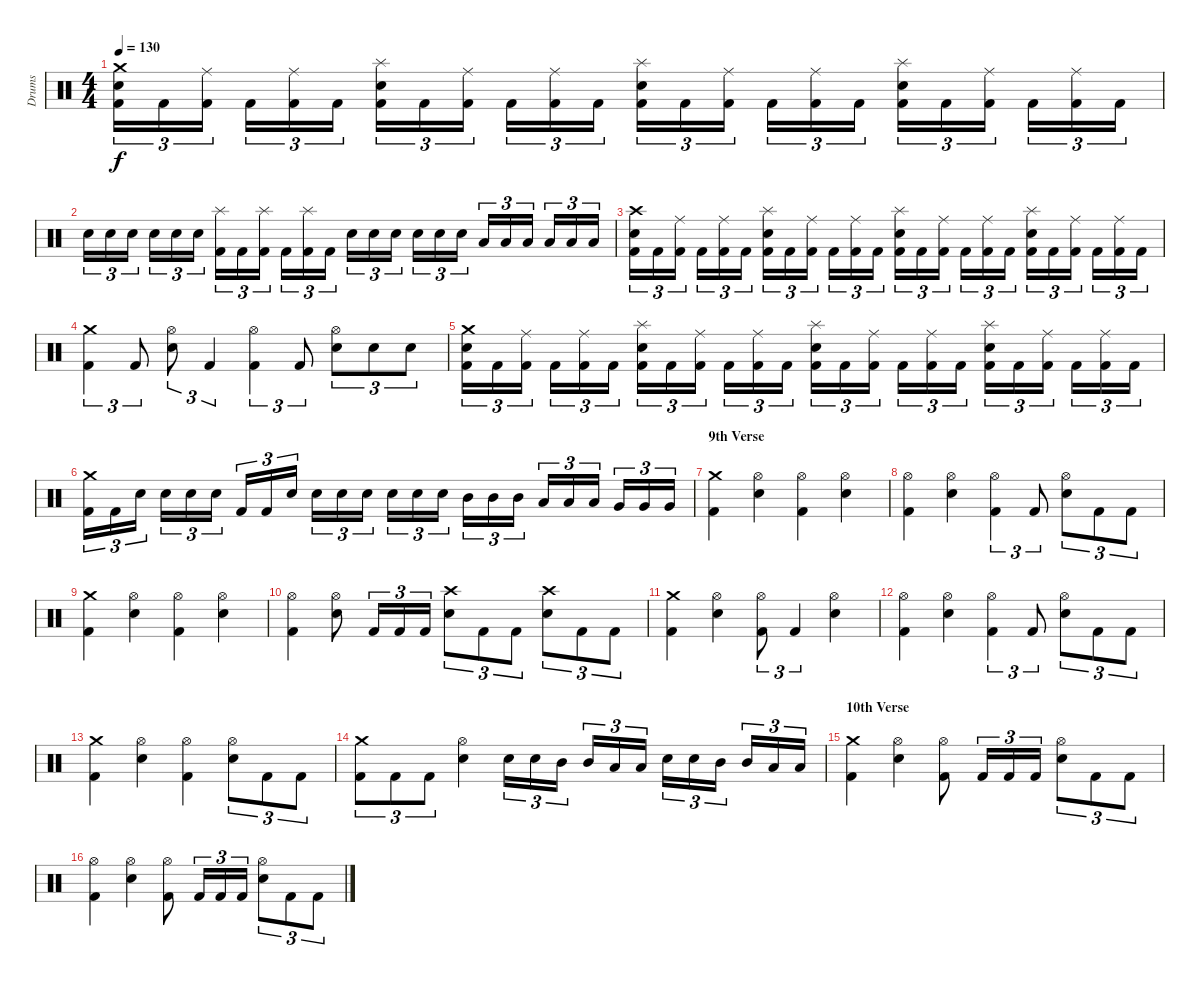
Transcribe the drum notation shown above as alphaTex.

\track ("Drums" "Drums") {instrument percussion}
\staff {score}
\articulation defaults
\ts (4 4)
\tempo 130
\clef neutral
\ks c
("Kick (hit) 2" "Electric Snare (hit)" "Crash medium (hit)").16{tu (3 2) dy f} "Kick (hit) 2".16{tu (3 2)} ("Kick (hit) 2" "Ride (middle)").16{tu (3 2)} "Kick (hit) 2".16{tu (3 2)} ("Kick (hit) 2" "Ride (middle)").16{tu (3 2)} "Kick (hit) 2".16{tu (3 2)} ("Kick (hit) 2" "Electric Snare (hit)" "Splash (hit)").16{tu (3 2)} "Kick (hit) 2".16{tu (3 2)} ("Kick (hit) 2" "Ride (middle)").16{tu (3 2)} "Kick (hit) 2".16{tu (3 2)} ("Kick (hit) 2" "Ride (middle)").16{tu (3 2)} "Kick (hit) 2".16{tu (3 2)} ("Kick (hit) 2" "Electric Snare (hit)" "Splash (hit)").16{tu (3 2)} "Kick (hit) 2".16{tu (3 2)} ("Kick (hit) 2" "Ride (middle)").16{tu (3 2)} "Kick (hit) 2".16{tu (3 2)} ("Kick (hit) 2" "Ride (middle)").16{tu (3 2)} "Kick (hit) 2".16{tu (3 2)} ("Kick (hit) 2" "Electric Snare (hit)" "Splash (hit)").16{tu (3 2)} "Kick (hit) 2".16{tu (3 2)} ("Kick (hit) 2" "Ride (middle)").16{tu (3 2)} "Kick (hit) 2".16{tu (3 2)} ("Kick (hit) 2" "Ride (middle)").16{tu (3 2)} "Kick (hit) 2".16{tu (3 2)} |
"Electric Snare (hit)".16{tu (3 2)} "Electric Snare (hit)".16{tu (3 2)} "Electric Snare (hit)".16{tu (3 2)} "Electric Snare (hit)".16{tu (3 2)} "Electric Snare (hit)".16{tu (3 2)} "Electric Snare (hit)".16{tu (3 2)} ("Kick (hit) 2" "Splash (hit)").16{tu (3 2)} "Kick (hit) 2".16{tu (3 2)} ("Kick (hit) 2" "Splash (hit)").16{tu (3 2)} "Kick (hit) 2".16{tu (3 2)} ("Kick (hit) 2" "Splash (hit)").16{tu (3 2)} "Kick (hit) 2".16{tu (3 2)} "Electric Snare (hit)".16{tu (3 2)} "Electric Snare (hit)".16{tu (3 2)} "Electric Snare (hit)".16{tu (3 2)} "Electric Snare (hit)".16{tu (3 2)} "Electric Snare (hit)".16{tu (3 2)} "Electric Snare (hit)".16{tu (3 2)} "Low Tom (hit)".16{tu (3 2)} "Low Tom (hit)".16{tu (3 2)} "Low Tom (hit)".16{tu (3 2)} "Low Tom (hit)".16{tu (3 2)} "Low Tom (hit)".16{tu (3 2)} "Low Tom (hit)".16{tu (3 2)} |
("Kick (hit) 2" "Electric Snare (hit)" "Crash high (hit)").16{tu (3 2)} "Kick (hit) 2".16{tu (3 2)} ("Kick (hit) 2" "Ride (middle)").16{tu (3 2)} "Kick (hit) 2".16{tu (3 2)} ("Kick (hit) 2" "Ride (middle)").16{tu (3 2)} "Kick (hit) 2".16{tu (3 2)} ("Kick (hit) 2" "Electric Snare (hit)" "Splash (hit)").16{tu (3 2)} "Kick (hit) 2".16{tu (3 2)} ("Kick (hit) 2" "Ride (middle)").16{tu (3 2)} "Kick (hit) 2".16{tu (3 2)} ("Kick (hit) 2" "Ride (middle)").16{tu (3 2)} "Kick (hit) 2".16{tu (3 2)} ("Kick (hit) 2" "Electric Snare (hit)" "Splash (hit)").16{tu (3 2)} "Kick (hit) 2".16{tu (3 2)} ("Kick (hit) 2" "Ride (middle)").16{tu (3 2)} "Kick (hit) 2".16{tu (3 2)} ("Kick (hit) 2" "Ride (middle)").16{tu (3 2)} "Kick (hit) 2".16{tu (3 2)} ("Kick (hit) 2" "Electric Snare (hit)" "Splash (hit)").16{tu (3 2)} "Kick (hit) 2".16{tu (3 2)} ("Kick (hit) 2" "Ride (middle)").16{tu (3 2)} "Kick (hit) 2".16{tu (3 2)} ("Kick (hit) 2" "Ride (middle)").16{tu (3 2)} "Kick (hit) 2".16{tu (3 2)} |
("Kick (hit) 2" "Crash medium (hit)").4{tu (3 2)} "Kick (hit) 2".8{tu (3 2)} ("Electric Snare (hit)" "Hi-Hat (open)").8{tu (3 2)} "Kick (hit) 2".4{tu (3 2)} ("Kick (hit) 2" "Hi-Hat (open)").4{tu (3 2)} "Kick (hit) 2".8{tu (3 2)} ("Electric Snare (hit)" "Hi-Hat (open)").8{tu (3 2)} "Electric Snare (hit)".8{tu (3 2)} "Electric Snare (hit)".8{tu (3 2)} |
("Kick (hit) 2" "Electric Snare (hit)" "Crash medium (hit)").16{tu (3 2)} "Kick (hit) 2".16{tu (3 2)} ("Kick (hit) 2" "Ride (middle)").16{tu (3 2)} "Kick (hit) 2".16{tu (3 2)} ("Kick (hit) 2" "Ride (middle)").16{tu (3 2)} "Kick (hit) 2".16{tu (3 2)} ("Kick (hit) 2" "Electric Snare (hit)" "Splash (hit)").16{tu (3 2)} "Kick (hit) 2".16{tu (3 2)} ("Kick (hit) 2" "Ride (middle)").16{tu (3 2)} "Kick (hit) 2".16{tu (3 2)} ("Kick (hit) 2" "Ride (middle)").16{tu (3 2)} "Kick (hit) 2".16{tu (3 2)} ("Kick (hit) 2" "Electric Snare (hit)" "Splash (hit)").16{tu (3 2)} "Kick (hit) 2".16{tu (3 2)} ("Kick (hit) 2" "Ride (middle)").16{tu (3 2)} "Kick (hit) 2".16{tu (3 2)} ("Kick (hit) 2" "Ride (middle)").16{tu (3 2)} "Kick (hit) 2".16{tu (3 2)} ("Kick (hit) 2" "Electric Snare (hit)" "Splash (hit)").16{tu (3 2)} "Kick (hit) 2".16{tu (3 2)} ("Kick (hit) 2" "Ride (middle)").16{tu (3 2)} "Kick (hit) 2".16{tu (3 2)} ("Kick (hit) 2" "Ride (middle)").16{tu (3 2)} "Kick (hit) 2".16{tu (3 2)} |
("Kick (hit) 2" "Crash medium (hit)").16{tu (3 2)} "Kick (hit) 2".16{tu (3 2)} "Electric Snare (hit)".16{tu (3 2)} "Electric Snare (hit)".16{tu (3 2)} "Electric Snare (hit)".16{tu (3 2)} "Electric Snare (hit)".16{tu (3 2)} "Kick (hit) 2".16{tu (3 2)} "Kick (hit) 2".16{tu (3 2)} "Electric Snare (hit)".16{tu (3 2)} "Electric Snare (hit)".16{tu (3 2)} "Electric Snare (hit)".16{tu (3 2)} "Electric Snare (hit)".16{tu (3 2)} "Electric Snare (hit)".16{tu (3 2)} "Electric Snare (hit)".16{tu (3 2)} "Electric Snare (hit)".16{tu (3 2)} "Mid Tom (hit)".16{tu (3 2)} "Mid Tom (hit)".16{tu (3 2)} "Mid Tom (hit)".16{tu (3 2)} "Low Tom (hit)".16{tu (3 2)} "Low Tom (hit)".16{tu (3 2)} "Low Tom (hit)".16{tu (3 2)} "Very Low Tom (hit)".16{tu (3 2)} "Very Low Tom (hit)".16{tu (3 2)} "Very Low Tom (hit)".16{tu (3 2)} |
\section ("" "9th Verse")
("Kick (hit) 2" "Crash medium (hit)").4 ("Electric Snare (hit)" "Hi-Hat (open)").4 ("Kick (hit) 2" "Hi-Hat (open)").4 ("Electric Snare (hit)" "Hi-Hat (open)").4 |
("Kick (hit) 2" "Hi-Hat (open)").4 ("Electric Snare (hit)" "Hi-Hat (open)").4 ("Kick (hit) 2" "Hi-Hat (open)").4{tu (3 2)} "Kick (hit) 2".8{tu (3 2)} ("Electric Snare (hit)" "Hi-Hat (open)").8{tu (3 2)} "Kick (hit) 2".8{tu (3 2)} "Kick (hit) 2".8{tu (3 2)} |
("Kick (hit) 2" "Crash medium (hit)").4 ("Electric Snare (hit)" "Hi-Hat (open)").4 ("Kick (hit) 2" "Hi-Hat (open)").4 ("Electric Snare (hit)" "Hi-Hat (open)").4 |
("Kick (hit) 2" "Hi-Hat (open)").4 ("Electric Snare (hit)" "Hi-Hat (open)").8 "Kick (hit) 2".16{tu (3 2)} "Kick (hit) 2".16{tu (3 2)} "Kick (hit) 2".16{tu (3 2)} ("Electric Snare (hit)" "Crash high (hit)").8{tu (3 2)} "Kick (hit) 2".8{tu (3 2)} "Kick (hit) 2".8{tu (3 2)} ("Electric Snare (hit)" "Crash high (hit)").8{tu (3 2)} "Kick (hit) 2".8{tu (3 2)} "Kick (hit) 2".8{tu (3 2)} |
("Kick (hit) 2" "Crash medium (hit)").4 ("Electric Snare (hit)" "Hi-Hat (open)").4 ("Kick (hit) 2" "Hi-Hat (open)").8{tu (3 2)} "Kick (hit) 2".4{tu (3 2)} ("Electric Snare (hit)" "Hi-Hat (open)").4 |
("Kick (hit) 2" "Hi-Hat (open)").4 ("Electric Snare (hit)" "Hi-Hat (open)").4 ("Kick (hit) 2" "Hi-Hat (open)").4{tu (3 2)} "Kick (hit) 2".8{tu (3 2)} ("Electric Snare (hit)" "Hi-Hat (open)").8{tu (3 2)} "Kick (hit) 2".8{tu (3 2)} "Kick (hit) 2".8{tu (3 2)} |
("Kick (hit) 2" "Crash medium (hit)").4 ("Electric Snare (hit)" "Hi-Hat (open)").4 ("Kick (hit) 2" "Hi-Hat (open)").4 ("Electric Snare (hit)" "Hi-Hat (open)").8{tu (3 2)} "Kick (hit) 2".8{tu (3 2)} "Kick (hit) 2".8{tu (3 2)} |
("Kick (hit) 2" "Crash medium (hit)").8{tu (3 2)} "Kick (hit) 2".8{tu (3 2)} "Kick (hit) 2".8{tu (3 2)} ("Electric Snare (hit)" "Hi-Hat (open)").4 "Electric Snare (hit)".16{tu (3 2)} "Electric Snare (hit)".16{tu (3 2)} "Mid Tom (hit)".16{tu (3 2)} "Mid Tom (hit)".16{tu (3 2)} "Low Tom (hit)".16{tu (3 2)} "Low Tom (hit)".16{tu (3 2)} "Electric Snare (hit)".16{tu (3 2)} "Electric Snare (hit)".16{tu (3 2)} "Mid Tom (hit)".16{tu (3 2)} "Mid Tom (hit)".16{tu (3 2)} "Low Tom (hit)".16{tu (3 2)} "Low Tom (hit)".16{tu (3 2)} |
\section ("" "10th Verse")
("Kick (hit) 2" "Crash medium (hit)").4 ("Electric Snare (hit)" "Hi-Hat (open)").4 ("Kick (hit) 2" "Hi-Hat (open)").8 "Kick (hit) 2".16{tu (3 2)} "Kick (hit) 2".16{tu (3 2)} "Kick (hit) 2".16{tu (3 2)} ("Electric Snare (hit)" "Hi-Hat (open)").8{tu (3 2)} "Kick (hit) 2".8{tu (3 2)} "Kick (hit) 2".8{tu (3 2)} |
("Kick (hit) 2" "Hi-Hat (open)").4 ("Electric Snare (hit)" "Hi-Hat (open)").4 ("Kick (hit) 2" "Hi-Hat (open)").8 "Kick (hit) 2".16{tu (3 2)} "Kick (hit) 2".16{tu (3 2)} "Kick (hit) 2".16{tu (3 2)} ("Electric Snare (hit)" "Hi-Hat (open)").8{tu (3 2)} "Kick (hit) 2".8{tu (3 2)} "Kick (hit) 2".8{tu (3 2)}
